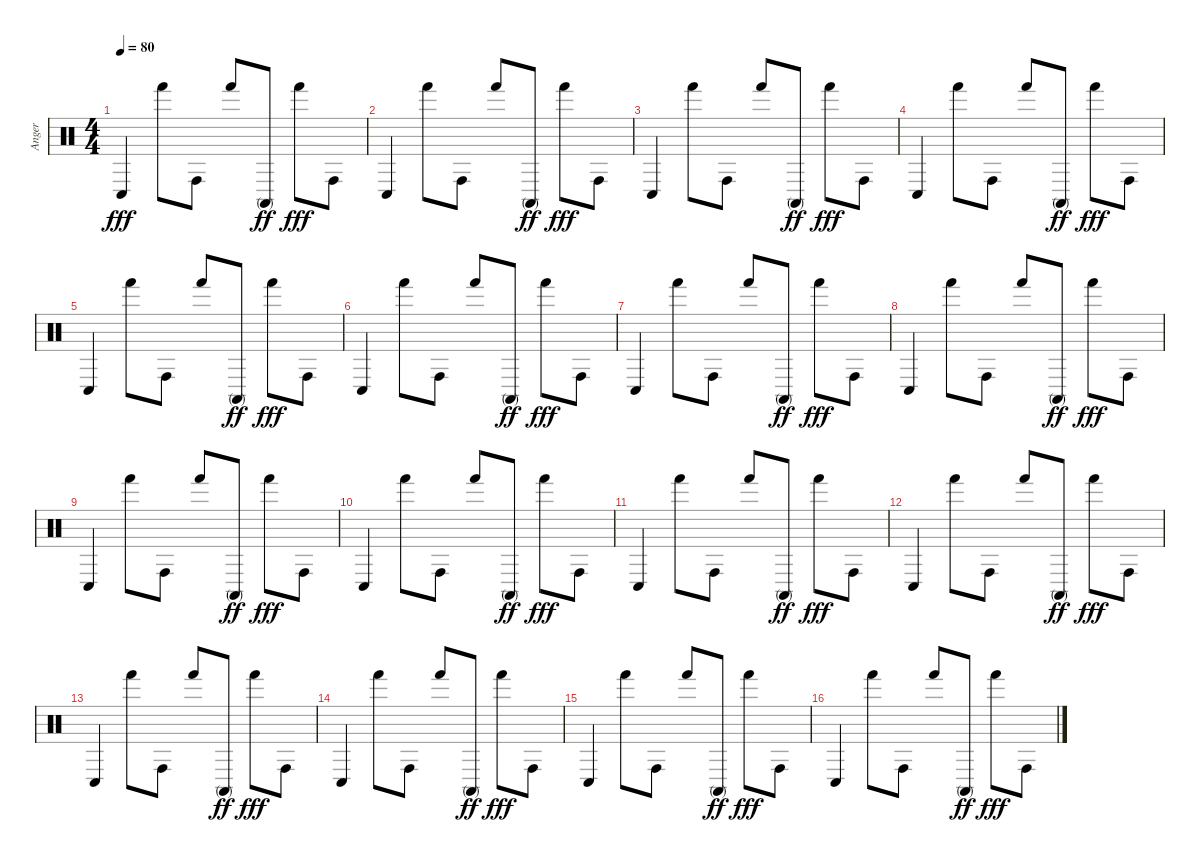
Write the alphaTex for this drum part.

\track ("Anger" "Anger") {instrument percussion}
\staff {score}
\articulation defaults
\ts (4 4)
\tempo 80
\clef neutral
\ks c "Conga low (hit)".4{dy fff} "Hand (hit)".8 "Conga high (hit)".8 "Hand (hit)".8 "Conga high (mute)".8{dy ff} "Hand (hit)".8{dy fff} "Conga high (hit)".8
|
"Conga low (hit)".4 "Hand (hit)".8 "Conga high (hit)".8 "Hand (hit)".8 "Conga high (mute)".8{dy ff} "Hand (hit)".8{dy fff} "Conga high (hit)".8 |
"Conga low (hit)".4 "Hand (hit)".8 "Conga high (hit)".8 "Hand (hit)".8 "Conga high (mute)".8{dy ff} "Hand (hit)".8{dy fff} "Conga high (hit)".8 |
"Conga low (hit)".4 "Hand (hit)".8 "Conga high (hit)".8 "Hand (hit)".8 "Conga high (mute)".8{dy ff} "Hand (hit)".8{dy fff} "Conga high (hit)".8 |
"Conga low (hit)".4 "Hand (hit)".8 "Conga high (hit)".8 "Hand (hit)".8 "Conga high (mute)".8{dy ff} "Hand (hit)".8{dy fff} "Conga high (hit)".8 |
"Conga low (hit)".4 "Hand (hit)".8 "Conga high (hit)".8 "Hand (hit)".8 "Conga high (mute)".8{dy ff} "Hand (hit)".8{dy fff} "Conga high (hit)".8 |
"Conga low (hit)".4 "Hand (hit)".8 "Conga high (hit)".8 "Hand (hit)".8 "Conga high (mute)".8{dy ff} "Hand (hit)".8{dy fff} "Conga high (hit)".8 |
"Conga low (hit)".4 "Hand (hit)".8 "Conga high (hit)".8 "Hand (hit)".8 "Conga high (mute)".8{dy ff} "Hand (hit)".8{dy fff} "Conga high (hit)".8 |
"Conga low (hit)".4 "Hand (hit)".8 "Conga high (hit)".8 "Hand (hit)".8 "Conga high (mute)".8{dy ff} "Hand (hit)".8{dy fff} "Conga high (hit)".8 |
"Conga low (hit)".4 "Hand (hit)".8 "Conga high (hit)".8 "Hand (hit)".8 "Conga high (mute)".8{dy ff} "Hand (hit)".8{dy fff} "Conga high (hit)".8 |
"Conga low (hit)".4 "Hand (hit)".8 "Conga high (hit)".8 "Hand (hit)".8 "Conga high (mute)".8{dy ff} "Hand (hit)".8{dy fff} "Conga high (hit)".8 |
"Conga low (hit)".4 "Hand (hit)".8 "Conga high (hit)".8 "Hand (hit)".8 "Conga high (mute)".8{dy ff} "Hand (hit)".8{dy fff} "Conga high (hit)".8 |
"Conga low (hit)".4 "Hand (hit)".8 "Conga high (hit)".8 "Hand (hit)".8 "Conga high (mute)".8{dy ff} "Hand (hit)".8{dy fff} "Conga high (hit)".8 |
"Conga low (hit)".4 "Hand (hit)".8 "Conga high (hit)".8 "Hand (hit)".8 "Conga high (mute)".8{dy ff} "Hand (hit)".8{dy fff} "Conga high (hit)".8 |
"Conga low (hit)".4 "Hand (hit)".8 "Conga high (hit)".8 "Hand (hit)".8 "Conga high (mute)".8{dy ff} "Hand (hit)".8{dy fff} "Conga high (hit)".8 |
"Conga low (hit)".4 "Hand (hit)".8 "Conga high (hit)".8 "Hand (hit)".8 "Conga high (mute)".8{dy ff} "Hand (hit)".8{dy fff} "Conga high (hit)".8
